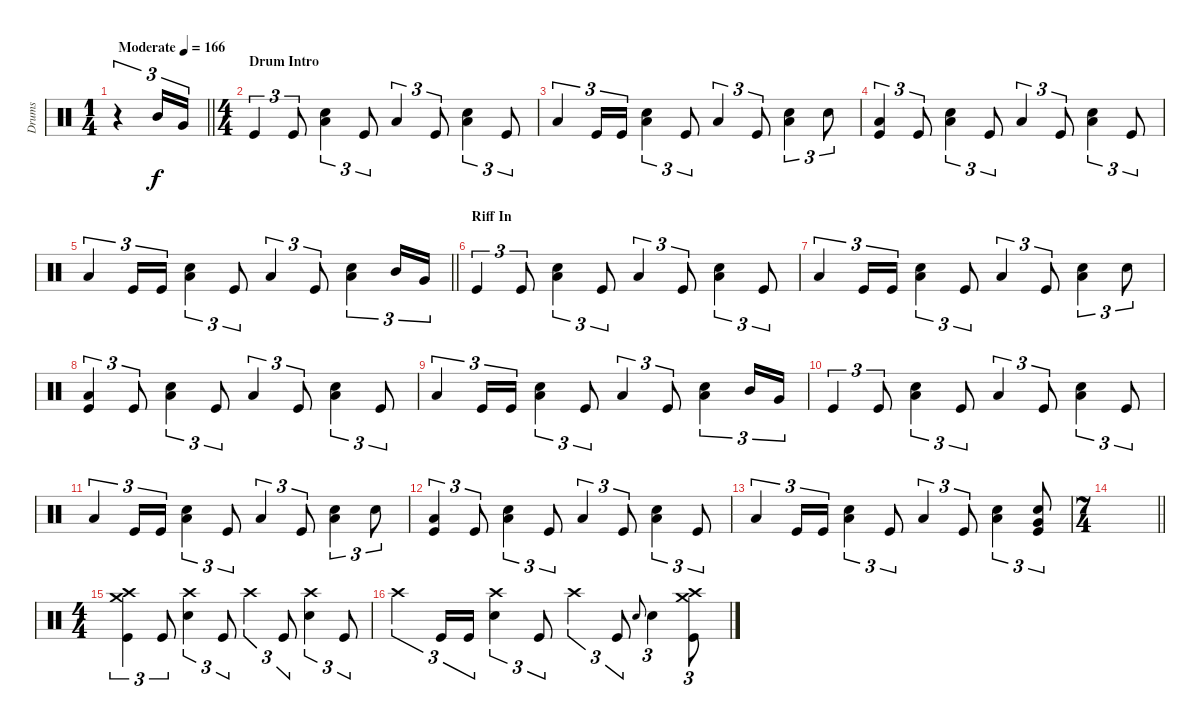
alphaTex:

\track ("Drums" "Drums") {instrument percussion}
\staff {score}
\articulation defaults
\ts (1 4)
\tempo (166 "Moderate")
\clef neutral
\barLineRight lightlight
\ks c
r.4{tu (3 2) dy f} "Mid Tom (hit)".16{tu (3 2)} "Very Low Tom (hit)".16{tu (3 2)} |
\ts (4 4)
\section ("" "Drum Intro")
"Kick (hit)".4{tu (3 2)} "Kick (hit)".8{tu (3 2)} ("Low Floor Tom (hit)" "Electric Snare (hit)").4{tu (3 2)} "Kick (hit)".8{tu (3 2)} "Low Floor Tom (hit)".4{tu (3 2)} "Kick (hit)".8{tu (3 2)} ("Low Floor Tom (hit)" "Electric Snare (hit)").4{tu (3 2)} "Kick (hit)".8{tu (3 2)} |
"Low Floor Tom (hit)".4{tu (3 2)} "Kick (hit)".16{tu (3 2)} "Kick (hit)".16{tu (3 2)} ("Low Floor Tom (hit)" "Electric Snare (hit)").4{tu (3 2)} "Kick (hit)".8{tu (3 2)} "Low Floor Tom (hit)".4{tu (3 2)} "Kick (hit)".8{tu (3 2)} ("Low Floor Tom (hit)" "Electric Snare (hit)").4{tu (3 2)} "Electric Snare (hit)".8{tu (3 2)} |
("Low Floor Tom (hit)" "Kick (hit)").4{tu (3 2)} "Kick (hit)".8{tu (3 2)} ("Low Floor Tom (hit)" "Electric Snare (hit)").4{tu (3 2)} "Kick (hit)".8{tu (3 2)} "Low Floor Tom (hit)".4{tu (3 2)} "Kick (hit)".8{tu (3 2)} ("Low Floor Tom (hit)" "Electric Snare (hit)").4{tu (3 2)} "Kick (hit)".8{tu (3 2)} |
\barLineRight lightlight "Low Floor Tom (hit)".4{tu (3 2)} "Kick (hit)".16{tu (3 2)} "Kick (hit)".16{tu (3 2)}
("Low Floor Tom (hit)" "Electric Snare (hit)").4{tu (3 2)} "Kick (hit)".8{tu (3 2)} "Low Floor Tom (hit)".4{tu (3 2)} "Kick (hit)".8{tu (3 2)} ("Low Floor Tom (hit)" "Electric Snare (hit)").4{tu (3 2)} "Mid Tom (hit)".16{tu (3 2)} "Very Low Tom (hit)".16{tu (3 2)} |
\section ("" "Riff In")
"Kick (hit)".4{tu (3 2)} "Kick (hit)".8{tu (3 2)} ("Low Floor Tom (hit)" "Electric Snare (hit)").4{tu (3 2)} "Kick (hit)".8{tu (3 2)} "Low Floor Tom (hit)".4{tu (3 2)} "Kick (hit)".8{tu (3 2)} ("Low Floor Tom (hit)" "Electric Snare (hit)").4{tu (3 2)} "Kick (hit)".8{tu (3 2)} |
"Low Floor Tom (hit)".4{tu (3 2)} "Kick (hit)".16{tu (3 2)} "Kick (hit)".16{tu (3 2)} ("Low Floor Tom (hit)" "Electric Snare (hit)").4{tu (3 2)} "Kick (hit)".8{tu (3 2)} "Low Floor Tom (hit)".4{tu (3 2)} "Kick (hit)".8{tu (3 2)} ("Low Floor Tom (hit)" "Electric Snare (hit)").4{tu (3 2)} "Electric Snare (hit)".8{tu (3 2)} |
("Low Floor Tom (hit)" "Kick (hit)").4{tu (3 2)} "Kick (hit)".8{tu (3 2)} ("Low Floor Tom (hit)" "Electric Snare (hit)").4{tu (3 2)} "Kick (hit)".8{tu (3 2)} "Low Floor Tom (hit)".4{tu (3 2)} "Kick (hit)".8{tu (3 2)} ("Low Floor Tom (hit)" "Electric Snare (hit)").4{tu (3 2)} "Kick (hit)".8{tu (3 2)} |
"Low Floor Tom (hit)".4{tu (3 2)} "Kick (hit)".16{tu (3 2)} "Kick (hit)".16{tu (3 2)} ("Low Floor Tom (hit)" "Electric Snare (hit)").4{tu (3 2)} "Kick (hit)".8{tu (3 2)} "Low Floor Tom (hit)".4{tu (3 2)} "Kick (hit)".8{tu (3 2)} ("Low Floor Tom (hit)" "Electric Snare (hit)").4{tu (3 2)} "Mid Tom (hit)".16{tu (3 2)} "Very Low Tom (hit)".16{tu (3 2)} |
"Kick (hit)".4{tu (3 2)} "Kick (hit)".8{tu (3 2)} ("Low Floor Tom (hit)" "Electric Snare (hit)").4{tu (3 2)} "Kick (hit)".8{tu (3 2)} "Low Floor Tom (hit)".4{tu (3 2)} "Kick (hit)".8{tu (3 2)} ("Low Floor Tom (hit)" "Electric Snare (hit)").4{tu (3 2)} "Kick (hit)".8{tu (3 2)} |
"Low Floor Tom (hit)".4{tu (3 2)} "Kick (hit)".16{tu (3 2)} "Kick (hit)".16{tu (3 2)} ("Low Floor Tom (hit)" "Electric Snare (hit)").4{tu (3 2)} "Kick (hit)".8{tu (3 2)} "Low Floor Tom (hit)".4{tu (3 2)} "Kick (hit)".8{tu (3 2)} ("Low Floor Tom (hit)" "Electric Snare (hit)").4{tu (3 2)} "Electric Snare (hit)".8{tu (3 2)} |
("Low Floor Tom (hit)" "Kick (hit)").4{tu (3 2)} "Kick (hit)".8{tu (3 2)} ("Low Floor Tom (hit)" "Electric Snare (hit)").4{tu (3 2)} "Kick (hit)".8{tu (3 2)} "Low Floor Tom (hit)".4{tu (3 2)} "Kick (hit)".8{tu (3 2)} ("Low Floor Tom (hit)" "Electric Snare (hit)").4{tu (3 2)} "Kick (hit)".8{tu (3 2)} |
"Low Floor Tom (hit)".4{tu (3 2)} "Kick (hit)".16{tu (3 2)} "Kick (hit)".16{tu (3 2)} ("Low Floor Tom (hit)" "Electric Snare (hit)").4{tu (3 2)} "Kick (hit)".8{tu (3 2)} "Low Floor Tom (hit)".4{tu (3 2)} "Kick (hit)".8{tu (3 2)} ("Low Floor Tom (hit)" "Electric Snare (hit)").4{tu (3 2)} ("Very Low Tom (hit)" "Electric Snare (hit)" "Kick (hit)").8{tu (3 2)} |
\ts (7 4)
\barLineRight lightlight
|
\ts (4 4)
\section ("" "")
("Crash high (hit)" "Crash medium (hit)" "Kick (hit)").4{tu (3 2)} "Kick (hit)".8{tu (3 2)} ("Crash high (hit)" "Electric Snare (hit)").4{tu (3 2)} "Kick (hit)".8{tu (3 2)} "Crash high (hit)".4{tu (3 2)} "Kick (hit)".8{tu (3 2)} ("Crash high (hit)" "Electric Snare (hit)").4{tu (3 2)} "Kick (hit)".8{tu (3 2)} |
"Crash high (hit)".4{tu (3 2)} "Kick (hit)".16{tu (3 2)} "Kick (hit)".16{tu (3 2)} ("Crash high (hit)" "Electric Snare (hit)").4{tu (3 2)} "Kick (hit)".8{tu (3 2)} "Crash high (hit)".4{tu (3 2)} "Kick (hit)".8{tu (3 2)} "Electric Snare (hit)".8{gr onbeat} "Electric Snare (hit)".4{tu (3 2)} ("Crash high (hit)" "Crash medium (hit)" "Kick (hit)").8{tu (3 2)}
